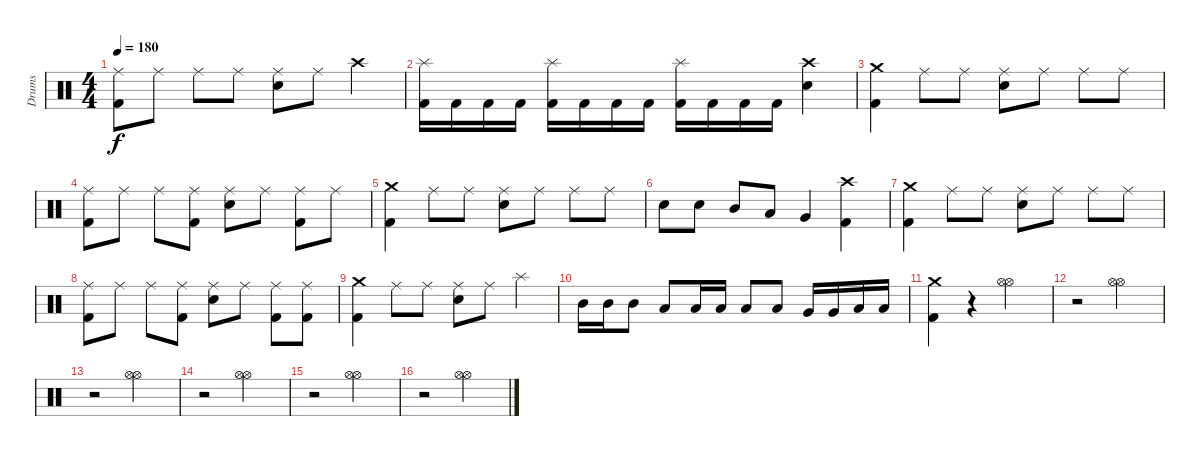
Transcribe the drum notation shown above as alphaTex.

\track ("Drums" "Drums") {instrument percussion}
\staff {score}
\articulation defaults
\ts (4 4)
\tempo 180
\clef neutral
\ks c
("Ride (middle)" "Kick (hit) 2").8{dy f} "Ride (middle)".8 "Ride (middle)".8 "Ride (middle)".8 ("Ride (middle)" "Electric Snare (hit)").8 "Ride (middle)".8 "Crash high (hit)".4 |
("Splash (hit)" "Kick (hit) 2").16 "Kick (hit) 2".16 "Kick (hit) 2".16 "Kick (hit) 2".16 ("Splash (hit)" "Kick (hit) 2").16 "Kick (hit) 2".16 "Kick (hit) 2".16 "Kick (hit) 2".16 ("Splash (hit)" "Kick (hit) 2").16 "Kick (hit) 2".16 "Kick (hit) 2".16 "Kick (hit) 2".16 ("Crash high (hit)" "Electric Snare (hit)").4 |
("Crash medium (hit)" "Kick (hit) 2").4 "Ride (middle)".8 "Ride (middle)".8 ("Ride (middle)" "Electric Snare (hit)").8 "Ride (middle)".8 "Ride (middle)".8 "Ride (middle)".8 |
("Ride (middle)" "Kick (hit) 2").8 "Ride (middle)".8 "Ride (middle)".8 ("Ride (middle)" "Kick (hit) 2").8 ("Ride (middle)" "Electric Snare (hit)").8 "Ride (middle)".8 ("Ride (middle)" "Kick (hit) 2").8 "Ride (middle)".8 |
("Crash medium (hit)" "Kick (hit) 2").4 "Ride (middle)".8 "Ride (middle)".8 ("Ride (middle)" "Electric Snare (hit)").8 "Ride (middle)".8 "Ride (middle)".8 "Ride (middle)".8 |
"Electric Snare (hit)".8 "Electric Snare (hit)".8 "Mid Tom (hit)".8 "Low Tom (hit)".8 "Very Low Tom (hit)".4 ("Crash high (hit)" "Kick (hit) 2").4 |
("Crash medium (hit)" "Kick (hit) 2").4 "Ride (middle)".8 "Ride (middle)".8 ("Ride (middle)" "Electric Snare (hit)").8 "Ride (middle)".8 "Ride (middle)".8 "Ride (middle)".8 |
("Ride (middle)" "Kick (hit) 2").8 "Ride (middle)".8 "Ride (middle)".8 ("Ride (middle)" "Kick (hit) 2").8 ("Ride (middle)" "Electric Snare (hit)").8 "Ride (middle)".8 ("Ride (middle)" "Kick (hit) 2").8 ("Ride (middle)" "Kick (hit) 2").8 |
("Crash medium (hit)" "Kick (hit) 2").4 "Ride (middle)".8 "Ride (middle)".8 ("Ride (middle)" "Electric Snare (hit)").8 "Ride (middle)".8 "Splash (hit)".4 |
"Mid Tom (hit)".16 "Mid Tom (hit)".16 "Mid Tom (hit)".8 "Low Tom (hit)".8 "Low Tom (hit)".16 "Low Tom (hit)".16 "Low Tom (hit)".8 "Low Tom (hit)".8 "Very Low Tom (hit)".16 "Very Low Tom (hit)".16 "Low Floor Tom (hit)".16 "Low Floor Tom (hit)".16 |
("Crash medium (hit)" "Kick (hit) 2").4 r.4 ("Hi-Hat (open)" "Hi-Hat (open)").2 |
r.2 ("Hi-Hat (open)" "Hi-Hat (open)").2 |
r.2 ("Hi-Hat (open)" "Hi-Hat (open)").2 |
r.2 ("Hi-Hat (open)" "Hi-Hat (open)").2 |
r.2 ("Hi-Hat (open)" "Hi-Hat (open)").2 |
r.2 ("Hi-Hat (open)" "Hi-Hat (open)").2
